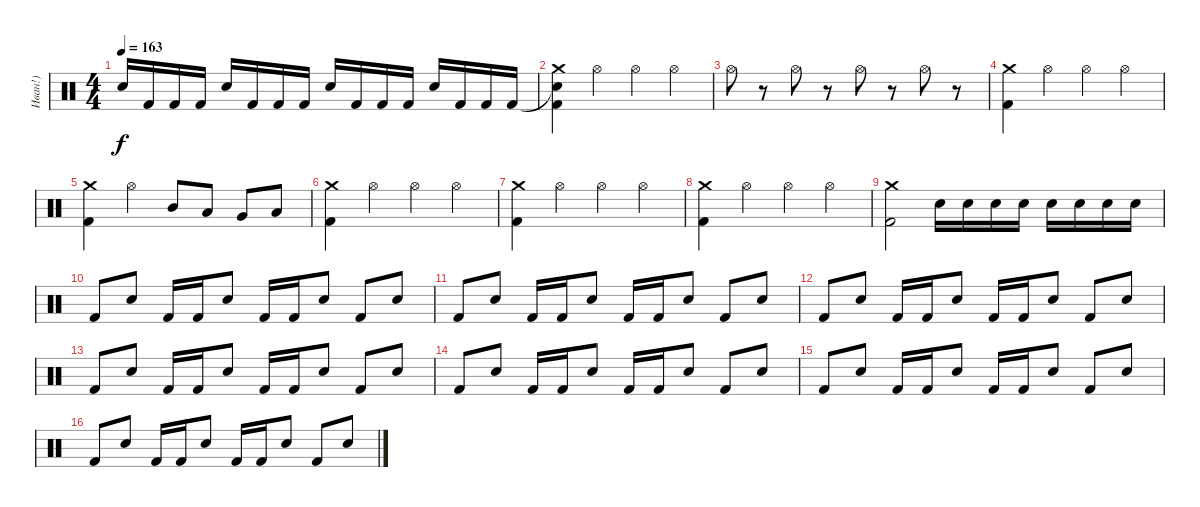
\track ("Иван!)" "Иван!)") {instrument percussion}
\staff {score}
\articulation defaults
\ts (4 4)
\tempo 163
\clef neutral
\ks c "Electric Snare (hit)".16{dy f} "Kick (hit) 2".16 "Kick (hit) 2".16 "Kick (hit) 2".16 "Electric Snare (hit)".16 "Kick (hit) 2".16 "Kick (hit) 2".16 "Kick (hit) 2".16 "Electric Snare (hit)".16 "Kick (hit) 2".16 "Kick (hit) 2".16 "Kick (hit) 2".16 "Electric Snare (hit)".16 "Kick (hit) 2".16 "Kick (hit) 2".16 "Kick (hit) 2".16
|
("Snare (hit)"{t} "Kick (hit) 2" "Crash medium (hit)").4 "Hi-Hat (open)".4 "Hi-Hat (open)".4 "Hi-Hat (open)".4 |
"Hi-Hat (open)".8 r.8 "Hi-Hat (open)".8 r.8 "Hi-Hat (open)".8 r.8 "Hi-Hat (open)".8 r.8 |
("Kick (hit) 2" "Crash medium (hit)").4 "Hi-Hat (open)".4 "Hi-Hat (open)".4 "Hi-Hat (open)".4 |
("Kick (hit) 2" "Crash medium (hit)").4 "Hi-Hat (open)".4 "Mid Tom (hit)".8 "Low Tom (hit)".8 "Very Low Tom (hit)".8 "Low Floor Tom (hit)".8 |
("Kick (hit) 2" "Crash medium (hit)").4 "Hi-Hat (open)".4 "Hi-Hat (open)".4 "Hi-Hat (open)".4 |
("Kick (hit) 2" "Crash medium (hit)").4 "Hi-Hat (open)".4 "Hi-Hat (open)".4 "Hi-Hat (open)".4 |
("Kick (hit) 2" "Crash medium (hit)").4 "Hi-Hat (open)".4 "Hi-Hat (open)".4 "Hi-Hat (open)".4 |
("Kick (hit) 2" "Crash medium (hit)").2 "Electric Snare (hit)".16 "Electric Snare (hit)".16 "Electric Snare (hit)".16 "Electric Snare (hit)".16 "Electric Snare (hit)".16 "Electric Snare (hit)".16 "Electric Snare (hit)".16 "Electric Snare (hit)".16 |
"Kick (hit) 2".8 "Electric Snare (hit)".8 "Kick (hit) 2".16 "Kick (hit) 2".16 "Electric Snare (hit)".8 "Kick (hit) 2".16 "Kick (hit) 2".16 "Electric Snare (hit)".8 "Kick (hit) 2".8 "Electric Snare (hit)".8 |
"Kick (hit) 2".8 "Electric Snare (hit)".8 "Kick (hit) 2".16 "Kick (hit) 2".16 "Electric Snare (hit)".8 "Kick (hit) 2".16 "Kick (hit) 2".16 "Electric Snare (hit)".8 "Kick (hit) 2".8 "Electric Snare (hit)".8 |
"Kick (hit) 2".8 "Electric Snare (hit)".8 "Kick (hit) 2".16 "Kick (hit) 2".16 "Electric Snare (hit)".8 "Kick (hit) 2".16 "Kick (hit) 2".16 "Electric Snare (hit)".8 "Kick (hit) 2".8 "Electric Snare (hit)".8 |
"Kick (hit) 2".8 "Electric Snare (hit)".8 "Kick (hit) 2".16 "Kick (hit) 2".16 "Electric Snare (hit)".8 "Kick (hit) 2".16 "Kick (hit) 2".16 "Electric Snare (hit)".8 "Kick (hit) 2".8 "Electric Snare (hit)".8 |
"Kick (hit) 2".8 "Electric Snare (hit)".8 "Kick (hit) 2".16 "Kick (hit) 2".16 "Electric Snare (hit)".8 "Kick (hit) 2".16 "Kick (hit) 2".16 "Electric Snare (hit)".8 "Kick (hit) 2".8 "Electric Snare (hit)".8 |
"Kick (hit) 2".8 "Electric Snare (hit)".8 "Kick (hit) 2".16 "Kick (hit) 2".16 "Electric Snare (hit)".8 "Kick (hit) 2".16 "Kick (hit) 2".16 "Electric Snare (hit)".8 "Kick (hit) 2".8 "Electric Snare (hit)".8 |
"Kick (hit) 2".8 "Electric Snare (hit)".8 "Kick (hit) 2".16 "Kick (hit) 2".16 "Electric Snare (hit)".8 "Kick (hit) 2".16 "Kick (hit) 2".16 "Electric Snare (hit)".8 "Kick (hit) 2".8 "Electric Snare (hit)".8
